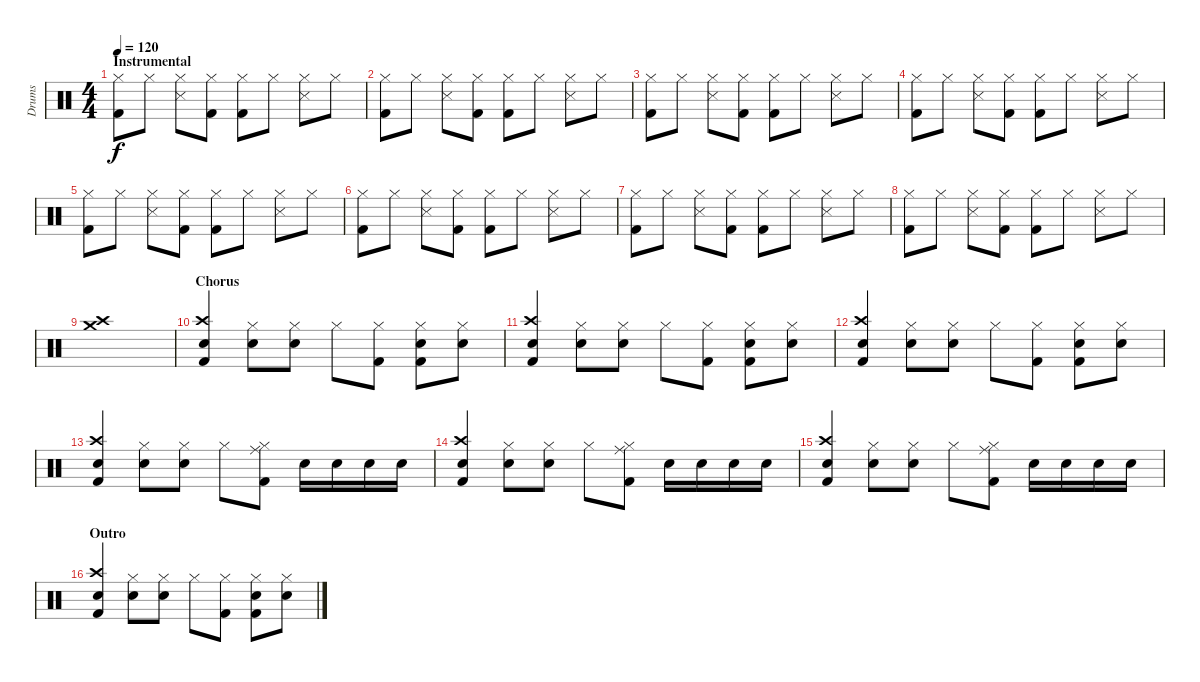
\track ("Drums" "Drums") {instrument percussion}
\staff {score}
\articulation defaults
\ts (4 4)
\section ("" "Instrumental")
\tempo 120
\clef neutral
\ks c
("Hi-Hat (closed)" "Kick (hit) 2").8{dy f} "Hi-Hat (closed)".8 ("Hi-Hat (closed)" "Snare (side stick) 3").8 ("Hi-Hat (closed)" "Kick (hit) 2").8 ("Hi-Hat (closed)" "Kick (hit) 2").8 "Hi-Hat (closed)".8 ("Hi-Hat (closed)" "Snare (side stick) 3").8 "Hi-Hat (closed)".8 |
("Hi-Hat (closed)" "Kick (hit) 2").8 "Hi-Hat (closed)".8 ("Hi-Hat (closed)" "Snare (side stick) 3").8 ("Hi-Hat (closed)" "Kick (hit) 2").8 ("Hi-Hat (closed)" "Kick (hit) 2").8 "Hi-Hat (closed)".8 ("Hi-Hat (closed)" "Snare (side stick) 3").8 "Hi-Hat (closed)".8 |
("Hi-Hat (closed)" "Kick (hit) 2").8 "Hi-Hat (closed)".8 ("Hi-Hat (closed)" "Snare (side stick) 3").8 ("Hi-Hat (closed)" "Kick (hit) 2").8 ("Hi-Hat (closed)" "Kick (hit) 2").8 "Hi-Hat (closed)".8 ("Hi-Hat (closed)" "Snare (side stick) 3").8 "Hi-Hat (closed)".8 |
("Hi-Hat (closed)" "Kick (hit) 2").8 "Hi-Hat (closed)".8 ("Hi-Hat (closed)" "Snare (side stick) 3").8 ("Hi-Hat (closed)" "Kick (hit) 2").8 ("Hi-Hat (closed)" "Kick (hit) 2").8 "Hi-Hat (closed)".8 ("Hi-Hat (closed)" "Snare (side stick) 3").8 "Hi-Hat (closed)".8 |
("Hi-Hat (closed)" "Kick (hit) 2").8 "Hi-Hat (closed)".8 ("Hi-Hat (closed)" "Snare (side stick) 3").8 ("Hi-Hat (closed)" "Kick (hit) 2").8 ("Hi-Hat (closed)" "Kick (hit) 2").8 "Hi-Hat (closed)".8 ("Hi-Hat (closed)" "Snare (side stick) 3").8 "Hi-Hat (closed)".8 |
("Hi-Hat (closed)" "Kick (hit) 2").8 "Hi-Hat (closed)".8 ("Hi-Hat (closed)" "Snare (side stick) 3").8 ("Hi-Hat (closed)" "Kick (hit) 2").8 ("Hi-Hat (closed)" "Kick (hit) 2").8 "Hi-Hat (closed)".8 ("Hi-Hat (closed)" "Snare (side stick) 3").8 "Hi-Hat (closed)".8 |
("Hi-Hat (closed)" "Kick (hit) 2").8 "Hi-Hat (closed)".8 ("Hi-Hat (closed)" "Snare (side stick) 3").8 ("Hi-Hat (closed)" "Kick (hit) 2").8 ("Hi-Hat (closed)" "Kick (hit) 2").8 "Hi-Hat (closed)".8 ("Hi-Hat (closed)" "Snare (side stick) 3").8 "Hi-Hat (closed)".8 |
("Hi-Hat (closed)" "Kick (hit) 2").8 "Hi-Hat (closed)".8 ("Hi-Hat (closed)" "Snare (side stick) 3").8 ("Hi-Hat (closed)" "Kick (hit) 2").8 ("Hi-Hat (closed)" "Kick (hit) 2").8 "Hi-Hat (closed)".8 ("Hi-Hat (closed)" "Snare (side stick) 3").8 "Hi-Hat (closed)".8 |
("Crash high (hit)" "Crash medium (hit)").1 |
\section ("" "Chorus")
("Crash high (hit)" "Kick (hit) 2" "Snare (hit) 2").4 ("Hi-Hat (closed)" "Snare (hit) 2").8 ("Hi-Hat (closed)" "Snare (hit) 2").8 "Hi-Hat (closed)".8 ("Hi-Hat (closed)" "Kick (hit) 2").8 ("Hi-Hat (closed)" "Kick (hit) 2" "Snare (hit) 2").8 ("Hi-Hat (closed)" "Snare (hit) 2").8 |
("Crash high (hit)" "Kick (hit) 2" "Snare (hit) 2").4 ("Hi-Hat (closed)" "Snare (hit) 2").8 ("Hi-Hat (closed)" "Snare (hit) 2").8 "Hi-Hat (closed)".8 ("Hi-Hat (closed)" "Kick (hit) 2").8 ("Hi-Hat (closed)" "Kick (hit) 2" "Snare (hit) 2").8 ("Hi-Hat (closed)" "Snare (hit) 2").8 |
("Crash high (hit)" "Kick (hit) 2" "Snare (hit) 2").4 ("Hi-Hat (closed)" "Snare (hit) 2").8 ("Hi-Hat (closed)" "Snare (hit) 2").8 "Hi-Hat (closed)".8 ("Hi-Hat (closed)" "Kick (hit) 2").8 ("Hi-Hat (closed)" "Kick (hit) 2" "Snare (hit) 2").8 ("Hi-Hat (closed)" "Snare (hit) 2").8 |
("Crash high (hit)" "Kick (hit) 2" "Snare (hit) 2").4 ("Hi-Hat (closed)" "Snare (hit) 2").8 ("Hi-Hat (closed)" "Snare (hit) 2").8 "Hi-Hat (closed)".8 ("Ride (middle)" "Hi-Hat (closed)" "Kick (hit) 2").8 "Electric Snare (hit)".16 "Electric Snare (hit)".16 "Electric Snare (hit)".16 "Electric Snare (hit)".16 |
("Crash high (hit)" "Kick (hit) 2" "Snare (hit) 2").4 ("Hi-Hat (closed)" "Snare (hit) 2").8 ("Hi-Hat (closed)" "Snare (hit) 2").8 "Hi-Hat (closed)".8 ("Ride (middle)" "Hi-Hat (closed)" "Kick (hit) 2").8 "Electric Snare (hit)".16 "Electric Snare (hit)".16 "Electric Snare (hit)".16 "Electric Snare (hit)".16 |
("Crash high (hit)" "Kick (hit) 2" "Snare (hit) 2").4 ("Hi-Hat (closed)" "Snare (hit) 2").8 ("Hi-Hat (closed)" "Snare (hit) 2").8 "Hi-Hat (closed)".8 ("Ride (middle)" "Hi-Hat (closed)" "Kick (hit) 2").8 "Electric Snare (hit)".16 "Electric Snare (hit)".16 "Electric Snare (hit)".16 "Electric Snare (hit)".16 |
\section ("" "Outro")
("Crash high (hit)" "Kick (hit) 2" "Snare (hit) 2").4 ("Hi-Hat (closed)" "Snare (hit) 2").8 ("Hi-Hat (closed)" "Snare (hit) 2").8 "Hi-Hat (closed)".8 ("Hi-Hat (closed)" "Kick (hit) 2").8 ("Hi-Hat (closed)" "Kick (hit) 2" "Snare (hit) 2").8 ("Hi-Hat (closed)" "Snare (hit) 2").8
